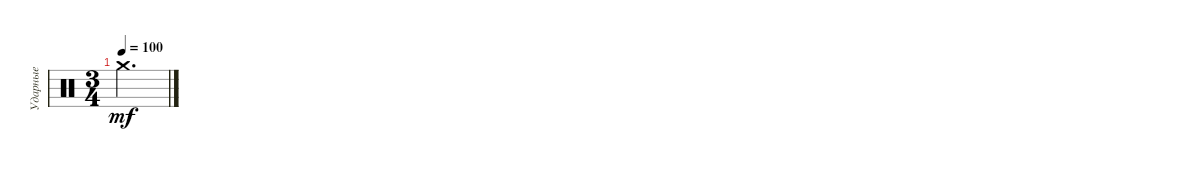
\track ("Ударные" "Ударные") {instrument percussion}
\staff {score}
\articulation defaults
\ts (3 4)
\tempo 100
\clef neutral
\ks c "Crash medium (hit)".2{d dy mf}
